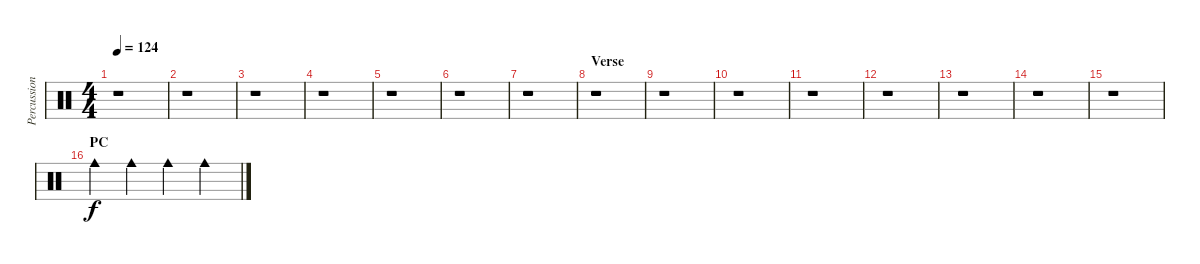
\track ("Percussion" "Percussion") {instrument percussion}
\staff {score}
\articulation defaults
\ts (4 4)
\tempo 124
\clef neutral
\ks c
r.1{dy f} |
r.1 |
r.1 |
r.1 |
r.1 |
r.1 |
r.1 |
\section ("" "Verse")
r.1 |
r.1 |
r.1 |
r.1 |
r.1 |
r.1 |
r.1 |
r.1 |
\section ("" "PC")
"Cowbell medium (hit)".4 "Cowbell medium (hit)".4 "Cowbell medium (hit)".4 "Cowbell medium (hit)".4
